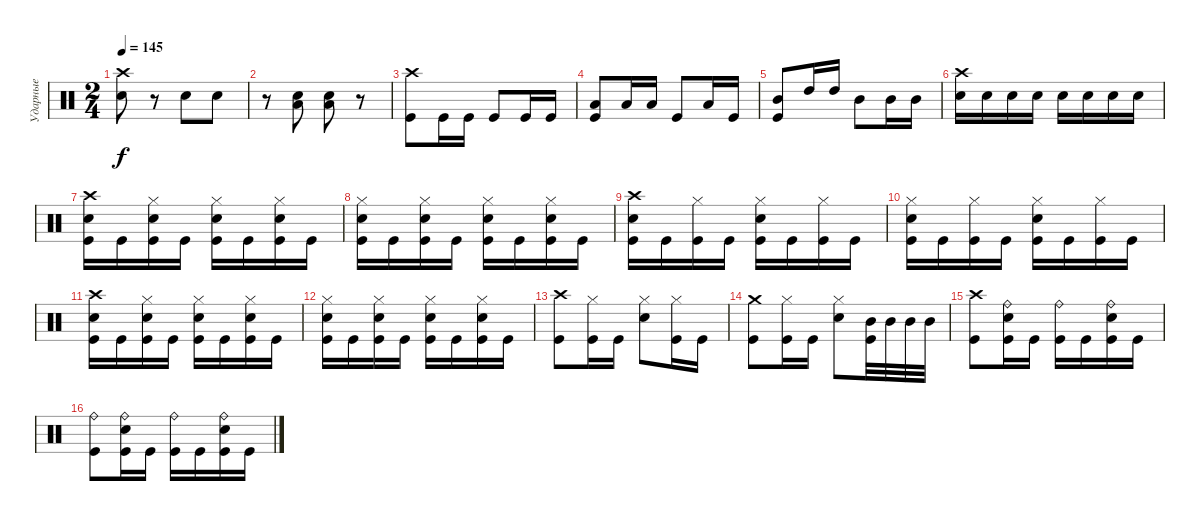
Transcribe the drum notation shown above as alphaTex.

\track ("Ударные" "Ударные") {instrument percussion}
\staff {score}
\articulation defaults
\ts (2 4)
\tempo 145
\clef neutral
\ks c
("Crash high (hit)" "Electric Snare (hit)").8{dy f} r.8 "Electric Snare (hit)".8 "Electric Snare (hit)".8 |
r.8 ("Low Tom (hit)" "Electric Snare (hit)").8 ("Low Tom (hit)" "Electric Snare (hit)").8 r.8 |
("Crash high (hit)" "Kick (hit)").8 "Kick (hit)".16 "Kick (hit)".16 "Kick (hit)".8 "Kick (hit)".16 "Kick (hit)".16 |
("Low Tom (hit)" "Kick (hit)").8 "Low Tom (hit)".16 "Low Tom (hit)".16 "Kick (hit)".8 "Low Tom (hit)".16 "Kick (hit)".16 |
("Mid Tom (hit)" "Kick (hit)").8 "High Tom (hit)".16 "High Tom (hit)".16 "Mid Tom (hit)".8 "Mid Tom (hit)".16 "Mid Tom (hit)".16 |
("Crash high (hit)" "Electric Snare (hit)").16 "Electric Snare (hit)".16 "Electric Snare (hit)".16 "Electric Snare (hit)".16 "Electric Snare (hit)".16 "Electric Snare (hit)".16 "Electric Snare (hit)".16 "Electric Snare (hit)".16 |
("Crash high (hit)" "Electric Snare (hit)" "Kick (hit)").16 "Kick (hit)".16 ("Hi-Hat (closed)" "Electric Snare (hit)" "Kick (hit)").16 "Kick (hit)".16 ("Hi-Hat (closed)" "Electric Snare (hit)" "Kick (hit)").16 "Kick (hit)".16 ("Hi-Hat (closed)" "Electric Snare (hit)" "Kick (hit)").16 "Kick (hit)".16 |
("Hi-Hat (closed)" "Electric Snare (hit)" "Kick (hit)").16 "Kick (hit)".16 ("Hi-Hat (closed)" "Electric Snare (hit)" "Kick (hit)").16 "Kick (hit)".16 ("Hi-Hat (closed)" "Electric Snare (hit)" "Kick (hit)").16 "Kick (hit)".16 ("Hi-Hat (closed)" "Electric Snare (hit)" "Kick (hit)").16 "Kick (hit)".16 |
("Crash high (hit)" "Electric Snare (hit)" "Kick (hit)").16 "Kick (hit)".16 ("Hi-Hat (closed)" "Kick (hit)").16 "Kick (hit)".16 ("Hi-Hat (closed)" "Electric Snare (hit)" "Kick (hit)").16 "Kick (hit)".16 ("Hi-Hat (closed)" "Kick (hit)").16 "Kick (hit)".16 |
("Hi-Hat (closed)" "Electric Snare (hit)" "Kick (hit)").16 "Kick (hit)".16 ("Hi-Hat (closed)" "Kick (hit)").16 "Kick (hit)".16 ("Hi-Hat (closed)" "Electric Snare (hit)" "Kick (hit)").16 "Kick (hit)".16 ("Hi-Hat (closed)" "Kick (hit)").16 "Kick (hit)".16 |
("Crash high (hit)" "Electric Snare (hit)" "Kick (hit)").16 "Kick (hit)".16 ("Hi-Hat (closed)" "Electric Snare (hit)" "Kick (hit)").16 "Kick (hit)".16 ("Hi-Hat (closed)" "Electric Snare (hit)" "Kick (hit)").16 "Kick (hit)".16 ("Hi-Hat (closed)" "Electric Snare (hit)" "Kick (hit)").16 "Kick (hit)".16 |
("Hi-Hat (closed)" "Electric Snare (hit)" "Kick (hit)").16 "Kick (hit)".16 ("Hi-Hat (closed)" "Electric Snare (hit)" "Kick (hit)").16 "Kick (hit)".16 ("Hi-Hat (closed)" "Electric Snare (hit)" "Kick (hit)").16 "Kick (hit)".16 ("Hi-Hat (closed)" "Electric Snare (hit)" "Kick (hit)").16 "Kick (hit)".16 |
("Crash high (hit)" "Kick (hit)").8 ("Hi-Hat (closed)" "Kick (hit)").16 "Kick (hit)".16 ("Hi-Hat (closed)" "Electric Snare (hit)").8 ("Hi-Hat (closed)" "Kick (hit)").16 "Kick (hit)".16 |
("Crash medium (hit)" "Kick (hit)").8 ("Hi-Hat (closed)" "Kick (hit)").16 "Kick (hit)".16 ("Hi-Hat (closed)" "Electric Snare (hit)").8 ("Mid Tom (hit)" "Kick (hit)").32 "Mid Tom (hit)".32 "Mid Tom (hit)".32 "Mid Tom (hit)".32 |
("Crash high (hit)" "Kick (hit)").8 ("Ride (bell)" "Electric Snare (hit)" "Kick (hit)").16 "Kick (hit)".16 ("Ride (bell)" "Kick (hit)").16 "Kick (hit)".16 ("Ride (bell)" "Electric Snare (hit)" "Kick (hit)").16 "Kick (hit)".16 |
("Ride (bell)" "Kick (hit)").8 ("Ride (bell)" "Electric Snare (hit)" "Kick (hit)").16 "Kick (hit)".16 ("Ride (bell)" "Kick (hit)").16 "Kick (hit)".16 ("Ride (bell)" "Electric Snare (hit)" "Kick (hit)").16 "Kick (hit)".16
